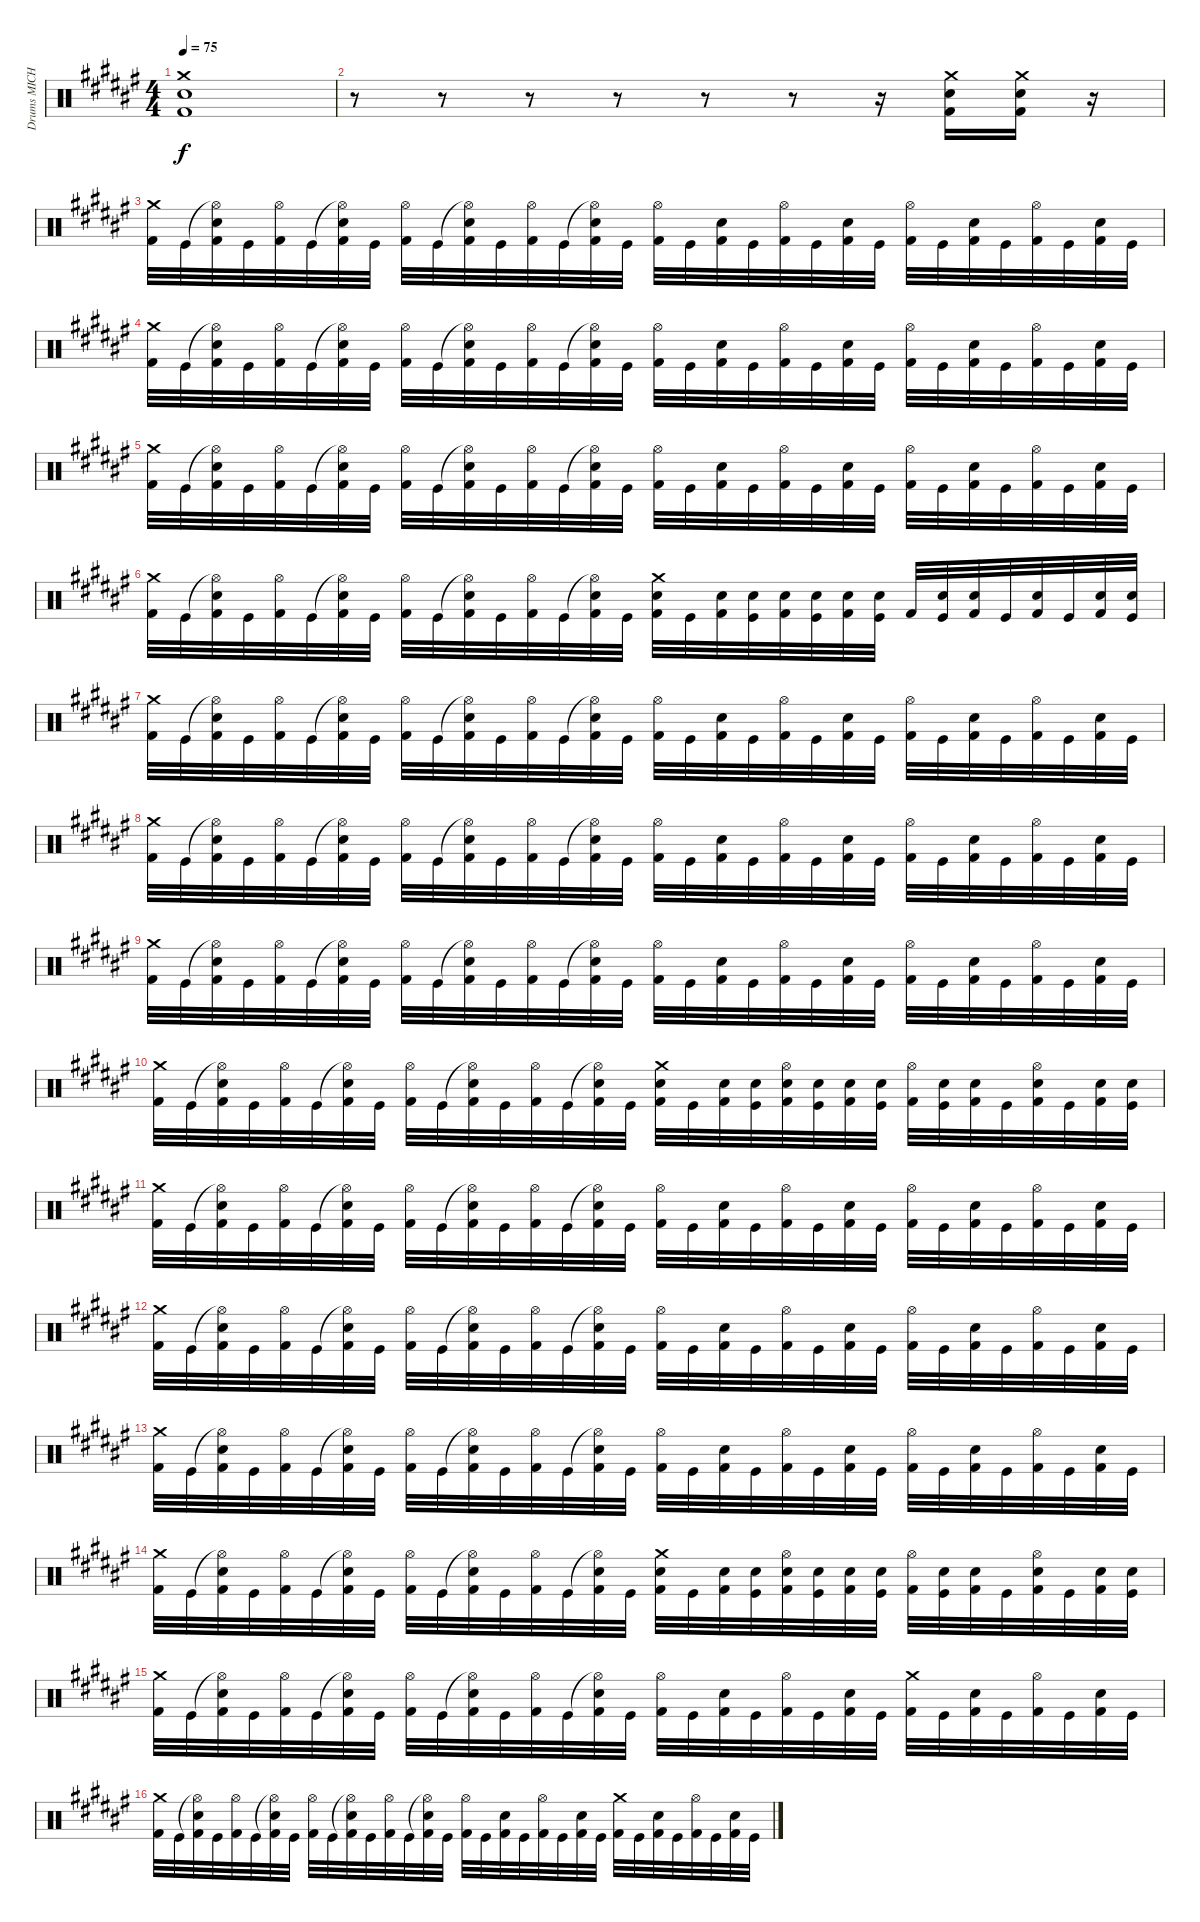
\track ("Drums MICHAEL" "Drums MICH") {instrument percussion}
\staff {score}
\articulation defaults
\ts (4 4)
\tempo 75
\clef neutral
\ks d#minor
("Crash medium (hit)" "Snare (hit) 2" "Kick (hit) 2").1{dy f} |
r.8 r.8 r.8 r.8 r.8 r.8 r.16 ("Crash medium (hit)" "Snare (hit) 2" "Kick (hit) 2").16 ("Crash medium (hit)" "Snare (hit) 2" "Kick (hit) 2").16 r.16 |
("Crash medium (hit)" "Kick (hit) 2").32 "Kick (hit)".32 ("Hi-Hat (open)"{t} "Snare (hit) 2" "Kick (hit) 2").32 "Kick (hit)".32 ("Hi-Hat (open)" "Kick (hit) 2").32 "Kick (hit)".32 ("Hi-Hat (open)"{t} "Snare (hit) 2" "Kick (hit) 2").32 "Kick (hit)".32 ("Hi-Hat (open)" "Kick (hit) 2").32 "Kick (hit)".32 ("Hi-Hat (open)"{t} "Snare (hit) 2" "Kick (hit) 2").32 "Kick (hit)".32 ("Hi-Hat (open)" "Kick (hit) 2").32 "Kick (hit)".32 ("Hi-Hat (open)"{t} "Snare (hit) 2" "Kick (hit) 2").32 "Kick (hit)".32 ("Hi-Hat (open)" "Kick (hit) 2").32 "Kick (hit)".32 ("Snare (hit) 2" "Kick (hit) 2").32 "Kick (hit)".32 ("Hi-Hat (open)" "Kick (hit) 2").32 "Kick (hit)".32 ("Snare (hit) 2" "Kick (hit) 2").32 "Kick (hit)".32 ("Hi-Hat (open)" "Kick (hit) 2").32 "Kick (hit)".32 ("Snare (hit) 2" "Kick (hit) 2").32 "Kick (hit)".32 ("Hi-Hat (open)" "Kick (hit) 2").32 "Kick (hit)".32 ("Snare (hit) 2" "Kick (hit) 2").32 "Kick (hit)".32 |
("Crash medium (hit)" "Kick (hit) 2").32 "Kick (hit)".32 ("Hi-Hat (open)"{t} "Snare (hit) 2" "Kick (hit) 2").32 "Kick (hit)".32 ("Hi-Hat (open)" "Kick (hit) 2").32 "Kick (hit)".32 ("Hi-Hat (open)"{t} "Snare (hit) 2" "Kick (hit) 2").32 "Kick (hit)".32 ("Hi-Hat (open)" "Kick (hit) 2").32 "Kick (hit)".32 ("Hi-Hat (open)"{t} "Snare (hit) 2" "Kick (hit) 2").32 "Kick (hit)".32 ("Hi-Hat (open)" "Kick (hit) 2").32 "Kick (hit)".32 ("Hi-Hat (open)"{t} "Snare (hit) 2" "Kick (hit) 2").32 "Kick (hit)".32 ("Hi-Hat (open)" "Kick (hit) 2").32 "Kick (hit)".32 ("Snare (hit) 2" "Kick (hit) 2").32 "Kick (hit)".32 ("Hi-Hat (open)" "Kick (hit) 2").32 "Kick (hit)".32 ("Snare (hit) 2" "Kick (hit) 2").32 "Kick (hit)".32 ("Hi-Hat (open)" "Kick (hit) 2").32 "Kick (hit)".32 ("Snare (hit) 2" "Kick (hit) 2").32 "Kick (hit)".32 ("Hi-Hat (open)" "Kick (hit) 2").32 "Kick (hit)".32 ("Snare (hit) 2" "Kick (hit) 2").32 "Kick (hit)".32 |
("Crash medium (hit)" "Kick (hit) 2").32 "Kick (hit)".32 ("Hi-Hat (open)"{t} "Snare (hit) 2" "Kick (hit) 2").32 "Kick (hit)".32 ("Hi-Hat (open)" "Kick (hit) 2").32 "Kick (hit)".32 ("Hi-Hat (open)"{t} "Snare (hit) 2" "Kick (hit) 2").32 "Kick (hit)".32 ("Hi-Hat (open)" "Kick (hit) 2").32 "Kick (hit)".32 ("Hi-Hat (open)"{t} "Snare (hit) 2" "Kick (hit) 2").32 "Kick (hit)".32 ("Hi-Hat (open)" "Kick (hit) 2").32 "Kick (hit)".32 ("Hi-Hat (open)"{t} "Snare (hit) 2" "Kick (hit) 2").32 "Kick (hit)".32 ("Hi-Hat (open)" "Kick (hit) 2").32 "Kick (hit)".32 ("Snare (hit) 2" "Kick (hit) 2").32 "Kick (hit)".32 ("Hi-Hat (open)" "Kick (hit) 2").32 "Kick (hit)".32 ("Snare (hit) 2" "Kick (hit) 2").32 "Kick (hit)".32 ("Hi-Hat (open)" "Kick (hit) 2").32 "Kick (hit)".32 ("Snare (hit) 2" "Kick (hit) 2").32 "Kick (hit)".32 ("Hi-Hat (open)" "Kick (hit) 2").32 "Kick (hit)".32 ("Snare (hit) 2" "Kick (hit) 2").32 "Kick (hit)".32 |
("Crash medium (hit)" "Kick (hit) 2").32 "Kick (hit)".32 ("Hi-Hat (open)"{t} "Snare (hit) 2" "Kick (hit) 2").32 "Kick (hit)".32 ("Hi-Hat (open)" "Kick (hit) 2").32 "Kick (hit)".32 ("Hi-Hat (open)"{t} "Snare (hit) 2" "Kick (hit) 2").32 "Kick (hit)".32 ("Hi-Hat (open)" "Kick (hit) 2").32 "Kick (hit)".32 ("Hi-Hat (open)"{t} "Snare (hit) 2" "Kick (hit) 2").32 "Kick (hit)".32 ("Hi-Hat (open)" "Kick (hit) 2").32 "Kick (hit)".32 ("Hi-Hat (open)"{t} "Snare (hit) 2" "Kick (hit) 2").32 "Kick (hit)".32 ("Crash medium (hit)" "Snare (hit) 2" "Kick (hit) 2").32 "Kick (hit)".32 ("Snare (hit) 2" "Kick (hit) 2").32 ("Snare (hit) 2" "Kick (hit)").32 ("Snare (hit)" "Kick (hit) 2").32 ("Snare (hit) 2" "Kick (hit)").32 ("Snare (hit)" "Kick (hit) 2").32 ("Snare (hit) 2" "Kick (hit)").32 "Kick (hit) 2".32 ("Snare (hit) 2" "Kick (hit)").32 ("Snare (hit) 2" "Kick (hit) 2").32 "Kick (hit)".32 ("Snare (hit) 2" "Kick (hit) 2").32 "Kick (hit)".32 ("Snare (hit) 2" "Kick (hit) 2").32 ("Snare (hit) 2" "Kick (hit)").32 |
("Crash medium (hit)" "Kick (hit) 2").32 "Kick (hit)".32 ("Hi-Hat (open)"{t} "Snare (hit) 2" "Kick (hit) 2").32 "Kick (hit)".32 ("Hi-Hat (open)" "Kick (hit) 2").32 "Kick (hit)".32 ("Hi-Hat (open)"{t} "Snare (hit) 2" "Kick (hit) 2").32 "Kick (hit)".32 ("Hi-Hat (open)" "Kick (hit) 2").32 "Kick (hit)".32 ("Hi-Hat (open)"{t} "Snare (hit) 2" "Kick (hit) 2").32 "Kick (hit)".32 ("Hi-Hat (open)" "Kick (hit) 2").32 "Kick (hit)".32 ("Hi-Hat (open)"{t} "Snare (hit) 2" "Kick (hit) 2").32 "Kick (hit)".32 ("Hi-Hat (open)" "Kick (hit) 2").32 "Kick (hit)".32 ("Snare (hit) 2" "Kick (hit) 2").32 "Kick (hit)".32 ("Hi-Hat (open)" "Kick (hit) 2").32 "Kick (hit)".32 ("Snare (hit) 2" "Kick (hit) 2").32 "Kick (hit)".32 ("Hi-Hat (open)" "Kick (hit) 2").32 "Kick (hit)".32 ("Snare (hit) 2" "Kick (hit) 2").32 "Kick (hit)".32 ("Hi-Hat (open)" "Kick (hit) 2").32 "Kick (hit)".32 ("Snare (hit) 2" "Kick (hit) 2").32 "Kick (hit)".32 |
("Crash medium (hit)" "Kick (hit) 2").32 "Kick (hit)".32 ("Hi-Hat (open)"{t} "Snare (hit) 2" "Kick (hit) 2").32 "Kick (hit)".32 ("Hi-Hat (open)" "Kick (hit) 2").32 "Kick (hit)".32 ("Hi-Hat (open)"{t} "Snare (hit) 2" "Kick (hit) 2").32 "Kick (hit)".32 ("Hi-Hat (open)" "Kick (hit) 2").32 "Kick (hit)".32 ("Hi-Hat (open)"{t} "Snare (hit) 2" "Kick (hit) 2").32 "Kick (hit)".32 ("Hi-Hat (open)" "Kick (hit) 2").32 "Kick (hit)".32 ("Hi-Hat (open)"{t} "Snare (hit) 2" "Kick (hit) 2").32 "Kick (hit)".32 ("Hi-Hat (open)" "Kick (hit) 2").32 "Kick (hit)".32 ("Snare (hit) 2" "Kick (hit) 2").32 "Kick (hit)".32 ("Hi-Hat (open)" "Kick (hit) 2").32 "Kick (hit)".32 ("Snare (hit) 2" "Kick (hit) 2").32 "Kick (hit)".32 ("Hi-Hat (open)" "Kick (hit) 2").32 "Kick (hit)".32 ("Snare (hit) 2" "Kick (hit) 2").32 "Kick (hit)".32 ("Hi-Hat (open)" "Kick (hit) 2").32 "Kick (hit)".32 ("Snare (hit) 2" "Kick (hit) 2").32 "Kick (hit)".32 |
("Crash medium (hit)" "Kick (hit) 2").32 "Kick (hit)".32 ("Hi-Hat (open)"{t} "Snare (hit) 2" "Kick (hit) 2").32 "Kick (hit)".32 ("Hi-Hat (open)" "Kick (hit) 2").32 "Kick (hit)".32 ("Hi-Hat (open)"{t} "Snare (hit) 2" "Kick (hit) 2").32 "Kick (hit)".32 ("Hi-Hat (open)" "Kick (hit) 2").32 "Kick (hit)".32 ("Hi-Hat (open)"{t} "Snare (hit) 2" "Kick (hit) 2").32 "Kick (hit)".32 ("Hi-Hat (open)" "Kick (hit) 2").32 "Kick (hit)".32 ("Hi-Hat (open)"{t} "Snare (hit) 2" "Kick (hit) 2").32 "Kick (hit)".32 ("Hi-Hat (open)" "Kick (hit) 2").32 "Kick (hit)".32 ("Snare (hit) 2" "Kick (hit) 2").32 "Kick (hit)".32 ("Hi-Hat (open)" "Kick (hit) 2").32 "Kick (hit)".32 ("Snare (hit) 2" "Kick (hit) 2").32 "Kick (hit)".32 ("Hi-Hat (open)" "Kick (hit) 2").32 "Kick (hit)".32 ("Snare (hit) 2" "Kick (hit) 2").32 "Kick (hit)".32 ("Hi-Hat (open)" "Kick (hit) 2").32 "Kick (hit)".32 ("Snare (hit) 2" "Kick (hit) 2").32 "Kick (hit)".32 |
("Crash medium (hit)" "Kick (hit) 2").32 "Kick (hit)".32 ("Hi-Hat (open)"{t} "Snare (hit) 2" "Kick (hit) 2").32 "Kick (hit)".32 ("Hi-Hat (open)" "Kick (hit) 2").32 "Kick (hit)".32 ("Hi-Hat (open)"{t} "Snare (hit) 2" "Kick (hit) 2").32 "Kick (hit)".32 ("Hi-Hat (open)" "Kick (hit) 2").32 "Kick (hit)".32 ("Hi-Hat (open)"{t} "Snare (hit) 2" "Kick (hit) 2").32 "Kick (hit)".32 ("Hi-Hat (open)" "Kick (hit) 2").32 "Kick (hit)".32 ("Hi-Hat (open)"{t} "Snare (hit) 2" "Kick (hit) 2").32 "Kick (hit)".32 ("Crash medium (hit)" "Snare (hit) 2" "Kick (hit) 2").32 "Kick (hit)".32 ("Snare (hit) 2" "Kick (hit) 2").32 ("Snare (hit) 2" "Kick (hit)").32 ("Hi-Hat (open)" "Snare (hit)" "Kick (hit) 2").32 ("Snare (hit) 2" "Kick (hit)").32 ("Snare (hit)" "Kick (hit) 2").32 ("Snare (hit) 2" "Kick (hit)").32 ("Hi-Hat (open)" "Kick (hit) 2").32 ("Snare (hit) 2" "Kick (hit)").32 ("Snare (hit) 2" "Kick (hit) 2").32 "Kick (hit)".32 ("Hi-Hat (open)" "Snare (hit) 2" "Kick (hit) 2").32 "Kick (hit)".32 ("Snare (hit) 2" "Kick (hit) 2").32 ("Snare (hit) 2" "Kick (hit)").32 |
("Crash medium (hit)" "Kick (hit) 2").32 "Kick (hit)".32 ("Hi-Hat (open)"{t} "Snare (hit) 2" "Kick (hit) 2").32 "Kick (hit)".32 ("Hi-Hat (open)" "Kick (hit) 2").32 "Kick (hit)".32 ("Hi-Hat (open)"{t} "Snare (hit) 2" "Kick (hit) 2").32 "Kick (hit)".32 ("Hi-Hat (open)" "Kick (hit) 2").32 "Kick (hit)".32 ("Hi-Hat (open)"{t} "Snare (hit) 2" "Kick (hit) 2").32 "Kick (hit)".32 ("Hi-Hat (open)" "Kick (hit) 2").32 "Kick (hit)".32 ("Hi-Hat (open)"{t} "Snare (hit) 2" "Kick (hit) 2").32 "Kick (hit)".32 ("Hi-Hat (open)" "Kick (hit) 2").32 "Kick (hit)".32 ("Snare (hit) 2" "Kick (hit) 2").32 "Kick (hit)".32 ("Hi-Hat (open)" "Kick (hit) 2").32 "Kick (hit)".32 ("Snare (hit) 2" "Kick (hit) 2").32 "Kick (hit)".32 ("Hi-Hat (open)" "Kick (hit) 2").32 "Kick (hit)".32 ("Snare (hit) 2" "Kick (hit) 2").32 "Kick (hit)".32 ("Hi-Hat (open)" "Kick (hit) 2").32 "Kick (hit)".32 ("Snare (hit) 2" "Kick (hit) 2").32 "Kick (hit)".32 |
("Crash medium (hit)" "Kick (hit) 2").32 "Kick (hit)".32 ("Hi-Hat (open)"{t} "Snare (hit) 2" "Kick (hit) 2").32 "Kick (hit)".32 ("Hi-Hat (open)" "Kick (hit) 2").32 "Kick (hit)".32 ("Hi-Hat (open)"{t} "Snare (hit) 2" "Kick (hit) 2").32 "Kick (hit)".32 ("Hi-Hat (open)" "Kick (hit) 2").32 "Kick (hit)".32 ("Hi-Hat (open)"{t} "Snare (hit) 2" "Kick (hit) 2").32 "Kick (hit)".32 ("Hi-Hat (open)" "Kick (hit) 2").32 "Kick (hit)".32 ("Hi-Hat (open)"{t} "Snare (hit) 2" "Kick (hit) 2").32 "Kick (hit)".32 ("Hi-Hat (open)" "Kick (hit) 2").32 "Kick (hit)".32 ("Snare (hit) 2" "Kick (hit) 2").32 "Kick (hit)".32 ("Hi-Hat (open)" "Kick (hit) 2").32 "Kick (hit)".32 ("Snare (hit) 2" "Kick (hit) 2").32 "Kick (hit)".32 ("Hi-Hat (open)" "Kick (hit) 2").32 "Kick (hit)".32 ("Snare (hit) 2" "Kick (hit) 2").32 "Kick (hit)".32 ("Hi-Hat (open)" "Kick (hit) 2").32 "Kick (hit)".32 ("Snare (hit) 2" "Kick (hit) 2").32 "Kick (hit)".32 |
("Crash medium (hit)" "Kick (hit) 2").32 "Kick (hit)".32 ("Hi-Hat (open)"{t} "Snare (hit) 2" "Kick (hit) 2").32 "Kick (hit)".32 ("Hi-Hat (open)" "Kick (hit) 2").32 "Kick (hit)".32 ("Hi-Hat (open)"{t} "Snare (hit) 2" "Kick (hit) 2").32 "Kick (hit)".32 ("Hi-Hat (open)" "Kick (hit) 2").32 "Kick (hit)".32 ("Hi-Hat (open)"{t} "Snare (hit) 2" "Kick (hit) 2").32 "Kick (hit)".32 ("Hi-Hat (open)" "Kick (hit) 2").32 "Kick (hit)".32 ("Hi-Hat (open)"{t} "Snare (hit) 2" "Kick (hit) 2").32 "Kick (hit)".32 ("Hi-Hat (open)" "Kick (hit) 2").32 "Kick (hit)".32 ("Snare (hit) 2" "Kick (hit) 2").32 "Kick (hit)".32 ("Hi-Hat (open)" "Kick (hit) 2").32 "Kick (hit)".32 ("Snare (hit) 2" "Kick (hit) 2").32 "Kick (hit)".32 ("Hi-Hat (open)" "Kick (hit) 2").32 "Kick (hit)".32 ("Snare (hit) 2" "Kick (hit) 2").32 "Kick (hit)".32 ("Hi-Hat (open)" "Kick (hit) 2").32 "Kick (hit)".32 ("Snare (hit) 2" "Kick (hit) 2").32 "Kick (hit)".32 |
("Crash medium (hit)" "Kick (hit) 2").32 "Kick (hit)".32 ("Hi-Hat (open)"{t} "Snare (hit) 2" "Kick (hit) 2").32 "Kick (hit)".32 ("Hi-Hat (open)" "Kick (hit) 2").32 "Kick (hit)".32 ("Hi-Hat (open)"{t} "Snare (hit) 2" "Kick (hit) 2").32 "Kick (hit)".32 ("Hi-Hat (open)" "Kick (hit) 2").32 "Kick (hit)".32 ("Hi-Hat (open)"{t} "Snare (hit) 2" "Kick (hit) 2").32 "Kick (hit)".32 ("Hi-Hat (open)" "Kick (hit) 2").32 "Kick (hit)".32 ("Hi-Hat (open)"{t} "Snare (hit) 2" "Kick (hit) 2").32 "Kick (hit)".32 ("Crash medium (hit)" "Snare (hit) 2" "Kick (hit) 2").32 "Kick (hit)".32 ("Snare (hit) 2" "Kick (hit) 2").32 ("Snare (hit) 2" "Kick (hit)").32 ("Hi-Hat (open)" "Snare (hit)" "Kick (hit) 2").32 ("Snare (hit) 2" "Kick (hit)").32 ("Snare (hit)" "Kick (hit) 2").32 ("Snare (hit) 2" "Kick (hit)").32 ("Hi-Hat (open)" "Kick (hit) 2").32 ("Snare (hit) 2" "Kick (hit)").32 ("Snare (hit) 2" "Kick (hit) 2").32 "Kick (hit)".32 ("Hi-Hat (open)" "Snare (hit) 2" "Kick (hit) 2").32 "Kick (hit)".32 ("Snare (hit) 2" "Kick (hit) 2").32 ("Snare (hit) 2" "Kick (hit)").32 |
("Crash medium (hit)" "Kick (hit) 2").32 "Kick (hit)".32 ("Hi-Hat (open)"{t} "Snare (hit) 2" "Kick (hit) 2").32 "Kick (hit)".32 ("Hi-Hat (open)" "Kick (hit) 2").32 "Kick (hit)".32 ("Hi-Hat (open)"{t} "Snare (hit) 2" "Kick (hit) 2").32 "Kick (hit)".32 ("Hi-Hat (open)" "Kick (hit) 2").32 "Kick (hit)".32 ("Hi-Hat (open)"{t} "Snare (hit) 2" "Kick (hit) 2").32 "Kick (hit)".32 ("Hi-Hat (open)" "Kick (hit) 2").32 "Kick (hit)".32 ("Hi-Hat (open)"{t} "Snare (hit) 2" "Kick (hit) 2").32 "Kick (hit)".32 ("Hi-Hat (open)" "Kick (hit) 2").32 "Kick (hit)".32 ("Snare (hit) 2" "Kick (hit) 2").32 "Kick (hit)".32 ("Hi-Hat (open)" "Kick (hit) 2").32 "Kick (hit)".32 ("Snare (hit) 2" "Kick (hit) 2").32 "Kick (hit)".32 ("Crash medium (hit)" "Kick (hit) 2").32 "Kick (hit)".32 ("Snare (hit) 2" "Kick (hit) 2").32 "Kick (hit)".32 ("Hi-Hat (open)" "Kick (hit) 2").32 "Kick (hit)".32 ("Snare (hit) 2" "Kick (hit) 2").32 "Kick (hit)".32 |
("Crash medium (hit)" "Kick (hit) 2").32 "Kick (hit)".32 ("Hi-Hat (open)"{t} "Snare (hit) 2" "Kick (hit) 2").32 "Kick (hit)".32 ("Hi-Hat (open)" "Kick (hit) 2").32 "Kick (hit)".32 ("Hi-Hat (open)"{t} "Snare (hit) 2" "Kick (hit) 2").32 "Kick (hit)".32 ("Hi-Hat (open)" "Kick (hit) 2").32 "Kick (hit)".32 ("Hi-Hat (open)"{t} "Snare (hit) 2" "Kick (hit) 2").32 "Kick (hit)".32 ("Hi-Hat (open)" "Kick (hit) 2").32 "Kick (hit)".32 ("Hi-Hat (open)"{t} "Snare (hit) 2" "Kick (hit) 2").32 "Kick (hit)".32 ("Hi-Hat (open)" "Kick (hit) 2").32 "Kick (hit)".32 ("Snare (hit) 2" "Kick (hit) 2").32 "Kick (hit)".32 ("Hi-Hat (open)" "Kick (hit) 2").32 "Kick (hit)".32 ("Snare (hit) 2" "Kick (hit) 2").32 "Kick (hit)".32 ("Crash medium (hit)" "Kick (hit) 2").32 "Kick (hit)".32 ("Snare (hit) 2" "Kick (hit) 2").32 "Kick (hit)".32 ("Hi-Hat (open)" "Kick (hit) 2").32 "Kick (hit)".32 ("Snare (hit) 2" "Kick (hit) 2").32 "Kick (hit)".32
